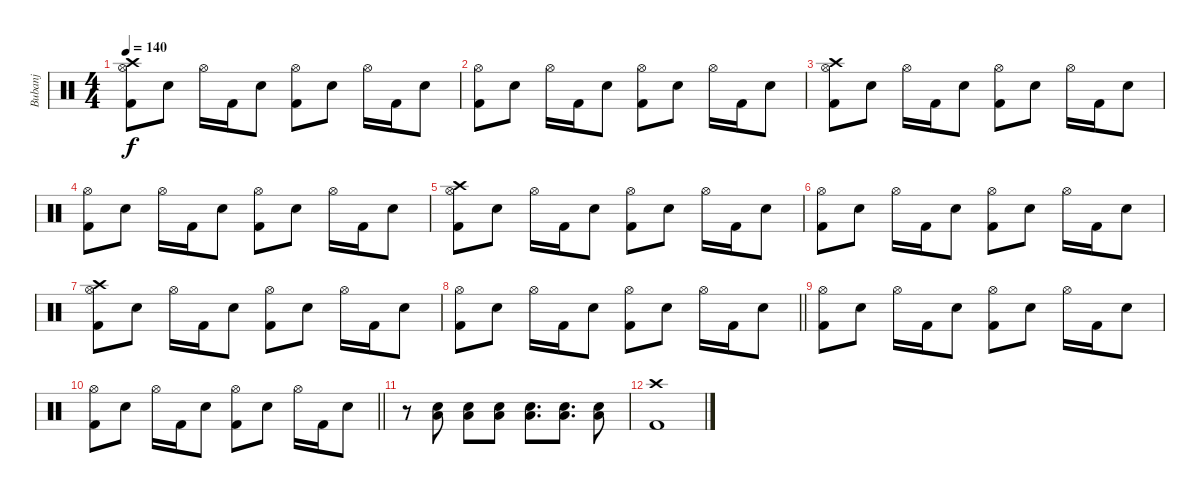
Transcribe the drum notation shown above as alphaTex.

\track ("Bubanj" "Bubanj") {instrument percussion}
\staff {score}
\articulation defaults
\ts (4 4)
\tempo 140
\clef neutral
\ks c
("Kick (hit) 2" "Hi-Hat (open)" "Crash high (hit)").8{dy f} "Snare (hit) 2".8 "Hi-Hat (open)".16 "Kick (hit) 2".16 "Snare (hit) 2".8 ("Kick (hit) 2" "Hi-Hat (open)").8 "Snare (hit) 2".8 "Hi-Hat (open)".16 "Kick (hit) 2".16 "Snare (hit) 2".8 |
("Kick (hit) 2" "Hi-Hat (open)").8 "Snare (hit) 2".8 "Hi-Hat (open)".16 "Kick (hit) 2".16 "Snare (hit) 2".8 ("Kick (hit) 2" "Hi-Hat (open)").8 "Snare (hit) 2".8 "Hi-Hat (open)".16 "Kick (hit) 2".16 "Snare (hit) 2".8 |
("Kick (hit) 2" "Hi-Hat (open)" "Crash high (hit)").8 "Snare (hit) 2".8 "Hi-Hat (open)".16 "Kick (hit) 2".16 "Snare (hit) 2".8 ("Kick (hit) 2" "Hi-Hat (open)").8 "Snare (hit) 2".8 "Hi-Hat (open)".16 "Kick (hit) 2".16 "Snare (hit) 2".8 |
("Kick (hit) 2" "Hi-Hat (open)").8 "Snare (hit) 2".8 "Hi-Hat (open)".16 "Kick (hit) 2".16 "Snare (hit) 2".8 ("Kick (hit) 2" "Hi-Hat (open)").8 "Snare (hit) 2".8 "Hi-Hat (open)".16 "Kick (hit) 2".16 "Snare (hit) 2".8 |
("Kick (hit) 2" "Hi-Hat (open)" "Crash high (hit)").8 "Snare (hit) 2".8 "Hi-Hat (open)".16 "Kick (hit) 2".16 "Snare (hit) 2".8 ("Kick (hit) 2" "Hi-Hat (open)").8 "Snare (hit) 2".8 "Hi-Hat (open)".16 "Kick (hit) 2".16 "Snare (hit) 2".8 |
("Kick (hit) 2" "Hi-Hat (open)").8 "Snare (hit) 2".8 "Hi-Hat (open)".16 "Kick (hit) 2".16 "Snare (hit) 2".8 ("Kick (hit) 2" "Hi-Hat (open)").8 "Snare (hit) 2".8 "Hi-Hat (open)".16 "Kick (hit) 2".16 "Snare (hit) 2".8 |
("Kick (hit) 2" "Hi-Hat (open)" "Crash high (hit)").8 "Snare (hit) 2".8 "Hi-Hat (open)".16 "Kick (hit) 2".16 "Snare (hit) 2".8 ("Kick (hit) 2" "Hi-Hat (open)").8 "Snare (hit) 2".8 "Hi-Hat (open)".16 "Kick (hit) 2".16 "Snare (hit) 2".8 |
\barLineRight lightlight
("Kick (hit) 2" "Hi-Hat (open)").8 "Snare (hit) 2".8 "Hi-Hat (open)".16 "Kick (hit) 2".16 "Snare (hit) 2".8 ("Kick (hit) 2" "Hi-Hat (open)").8 "Snare (hit) 2".8 "Hi-Hat (open)".16 "Kick (hit) 2".16 "Snare (hit) 2".8 |
("Kick (hit) 2" "Hi-Hat (open)").8 "Snare (hit) 2".8 "Hi-Hat (open)".16 "Kick (hit) 2".16 "Snare (hit) 2".8 ("Kick (hit) 2" "Hi-Hat (open)").8 "Snare (hit) 2".8 "Hi-Hat (open)".16 "Kick (hit) 2".16 "Snare (hit) 2".8 |
\barLineRight lightlight
("Kick (hit) 2" "Hi-Hat (open)").8 "Snare (hit) 2".8 "Hi-Hat (open)".16 "Kick (hit) 2".16 "Snare (hit) 2".8 ("Kick (hit) 2" "Hi-Hat (open)").8 "Snare (hit) 2".8 "Hi-Hat (open)".16 "Kick (hit) 2".16 "Snare (hit) 2".8 |
r.8 ("Low Floor Tom (hit)" "Snare (hit) 2").8 ("Low Floor Tom (hit)" "Snare (hit) 2").8 ("Low Floor Tom (hit)" "Snare (hit) 2").8 ("Low Floor Tom (hit)" "Snare (hit) 2").8{d} ("Low Floor Tom (hit)" "Snare (hit) 2").8{d} ("Low Floor Tom (hit)" "Snare (hit) 2").8 |
("Kick (hit) 2" "Crash high (hit)").1
